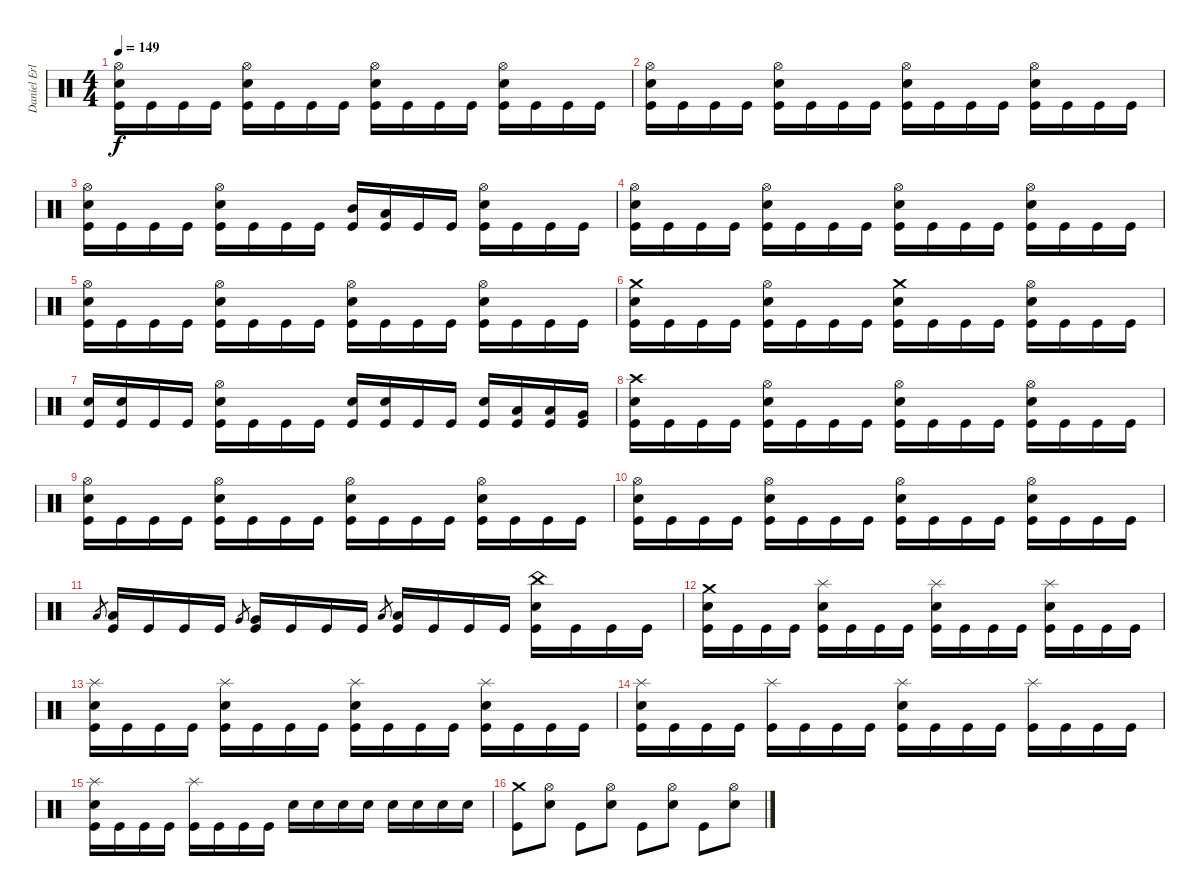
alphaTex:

\track ("Daniel Erlandsson" "Daniel Erl") {instrument percussion}
\staff {score}
\articulation defaults
\ts (4 4)
\tempo 149
\clef neutral
\ks c
("Kick (hit)" "Electric Snare (hit)" "Hi-Hat (open)").16{dy f} "Kick (hit)".16 "Kick (hit)".16 "Kick (hit)".16 ("Kick (hit)" "Electric Snare (hit)" "Hi-Hat (open)").16 "Kick (hit)".16 "Kick (hit)".16 "Kick (hit)".16 ("Kick (hit)" "Electric Snare (hit)" "Hi-Hat (open)").16 "Kick (hit)".16 "Kick (hit)".16 "Kick (hit)".16 ("Kick (hit)" "Electric Snare (hit)" "Hi-Hat (open)").16 "Kick (hit)".16 "Kick (hit)".16 "Kick (hit)".16 |
("Kick (hit)" "Electric Snare (hit)" "Hi-Hat (open)").16 "Kick (hit)".16 "Kick (hit)".16 "Kick (hit)".16 ("Kick (hit)" "Electric Snare (hit)" "Hi-Hat (open)").16 "Kick (hit)".16 "Kick (hit)".16 "Kick (hit)".16 ("Kick (hit)" "Electric Snare (hit)" "Hi-Hat (open)").16 "Kick (hit)".16 "Kick (hit)".16 "Kick (hit)".16 ("Kick (hit)" "Electric Snare (hit)" "Hi-Hat (open)").16 "Kick (hit)".16 "Kick (hit)".16 "Kick (hit)".16 |
("Kick (hit)" "Electric Snare (hit)" "Hi-Hat (open)").16 "Kick (hit)".16 "Kick (hit)".16 "Kick (hit)".16 ("Kick (hit)" "Electric Snare (hit)" "Hi-Hat (open)").16 "Kick (hit)".16 "Kick (hit)".16 "Kick (hit)".16 ("Kick (hit)" "Mid Tom (hit)").16 ("Kick (hit)" "Low Tom (hit)").16 "Kick (hit)".16 "Kick (hit)".16 ("Kick (hit)" "Electric Snare (hit)" "Hi-Hat (open)").16 "Kick (hit)".16 "Kick (hit)".16 "Kick (hit)".16 |
("Kick (hit)" "Electric Snare (hit)" "Hi-Hat (open)").16 "Kick (hit)".16 "Kick (hit)".16 "Kick (hit)".16 ("Kick (hit)" "Electric Snare (hit)" "Hi-Hat (open)").16 "Kick (hit)".16 "Kick (hit)".16 "Kick (hit)".16 ("Kick (hit)" "Electric Snare (hit)" "Hi-Hat (open)").16 "Kick (hit)".16 "Kick (hit)".16 "Kick (hit)".16 ("Kick (hit)" "Electric Snare (hit)" "Hi-Hat (open)").16 "Kick (hit)".16 "Kick (hit)".16 "Kick (hit)".16 |
("Kick (hit)" "Electric Snare (hit)" "Hi-Hat (open)").16 "Kick (hit)".16 "Kick (hit)".16 "Kick (hit)".16 ("Kick (hit)" "Electric Snare (hit)" "Hi-Hat (open)").16 "Kick (hit)".16 "Kick (hit)".16 "Kick (hit)".16 ("Kick (hit)" "Electric Snare (hit)" "Hi-Hat (open)").16 "Kick (hit)".16 "Kick (hit)".16 "Kick (hit)".16 ("Kick (hit)" "Electric Snare (hit)" "Hi-Hat (open)").16 "Kick (hit)".16 "Kick (hit)".16 "Kick (hit)".16 |
("Kick (hit)" "Electric Snare (hit)" "Crash medium (hit)").16 "Kick (hit)".16 "Kick (hit)".16 "Kick (hit)".16 ("Kick (hit)" "Electric Snare (hit)" "Hi-Hat (open)").16 "Kick (hit)".16 "Kick (hit)".16 "Kick (hit)".16 ("Kick (hit)" "Electric Snare (hit)" "Crash medium (hit)").16 "Kick (hit)".16 "Kick (hit)".16 "Kick (hit)".16 ("Kick (hit)" "Electric Snare (hit)" "Hi-Hat (open)").16 "Kick (hit)".16 "Kick (hit)".16 "Kick (hit)".16 |
("Kick (hit)" "Electric Snare (hit)").16 ("Kick (hit)" "Electric Snare (hit)").16 "Kick (hit)".16 "Kick (hit)".16 ("Kick (hit)" "Electric Snare (hit)" "Hi-Hat (open)").16 "Kick (hit)".16 "Kick (hit)".16 "Kick (hit)".16 ("Kick (hit)" "Electric Snare (hit)").16 ("Kick (hit)" "Electric Snare (hit)").16 "Kick (hit)".16 "Kick (hit)".16 ("Kick (hit)" "Electric Snare (hit)").16 ("Kick (hit)" "Low Tom (hit)").16 ("Kick (hit)" "Low Tom (hit)").16 ("Kick (hit)" "Very Low Tom (hit)").16 |
("Kick (hit)" "Electric Snare (hit)" "Crash high (hit)").16 "Kick (hit)".16 "Kick (hit)".16 "Kick (hit)".16 ("Kick (hit)" "Electric Snare (hit)" "Hi-Hat (open)").16 "Kick (hit)".16 "Kick (hit)".16 "Kick (hit)".16 ("Kick (hit)" "Electric Snare (hit)" "Hi-Hat (open)").16 "Kick (hit)".16 "Kick (hit)".16 "Kick (hit)".16 ("Kick (hit)" "Electric Snare (hit)" "Hi-Hat (open)").16 "Kick (hit)".16 "Kick (hit)".16 "Kick (hit)".16 |
("Kick (hit)" "Electric Snare (hit)" "Hi-Hat (open)").16 "Kick (hit)".16 "Kick (hit)".16 "Kick (hit)".16 ("Kick (hit)" "Electric Snare (hit)" "Hi-Hat (open)").16 "Kick (hit)".16 "Kick (hit)".16 "Kick (hit)".16 ("Kick (hit)" "Electric Snare (hit)" "Hi-Hat (open)").16 "Kick (hit)".16 "Kick (hit)".16 "Kick (hit)".16 ("Kick (hit)" "Electric Snare (hit)" "Hi-Hat (open)").16 "Kick (hit)".16 "Kick (hit)".16 "Kick (hit)".16 |
("Kick (hit)" "Electric Snare (hit)" "Hi-Hat (open)").16 "Kick (hit)".16 "Kick (hit)".16 "Kick (hit)".16 ("Kick (hit)" "Electric Snare (hit)" "Hi-Hat (open)").16 "Kick (hit)".16 "Kick (hit)".16 "Kick (hit)".16 ("Kick (hit)" "Electric Snare (hit)" "Hi-Hat (open)").16 "Kick (hit)".16 "Kick (hit)".16 "Kick (hit)".16 ("Kick (hit)" "Electric Snare (hit)" "Hi-Hat (open)").16 "Kick (hit)".16 "Kick (hit)".16 "Kick (hit)".16 |
"Low Tom (hit)".8{gr} ("Kick (hit)" "Low Tom (hit)").16 "Kick (hit)".16 "Kick (hit)".16 "Kick (hit)".16 "Very Low Tom (hit)".8{gr} ("Kick (hit)" "Very Low Tom (hit)").16 "Kick (hit)".16 "Kick (hit)".16 "Kick (hit)".16 "Low Floor Tom (hit)".8{gr} ("Kick (hit)" "Low Floor Tom (hit)").16 "Kick (hit)".16 "Kick (hit)".16 "Kick (hit)".16 ("Kick (hit)" "Electric Snare (hit)" "China (hit)").16 "Kick (hit)".16 "Kick (hit)".16 "Kick (hit)".16 |
("Kick (hit)" "Electric Snare (hit)" "Crash medium (hit)").16 "Kick (hit)".16 "Kick (hit)".16 "Kick (hit)".16 ("Kick (hit)" "Electric Snare (hit)" "Splash (hit)").16 "Kick (hit)".16 "Kick (hit)".16 "Kick (hit)".16 ("Kick (hit)" "Electric Snare (hit)" "Splash (hit)").16 "Kick (hit)".16 "Kick (hit)".16 "Kick (hit)".16 ("Kick (hit)" "Electric Snare (hit)" "Splash (hit)").16 "Kick (hit)".16 "Kick (hit)".16 "Kick (hit)".16 |
("Kick (hit)" "Electric Snare (hit)" "Splash (hit)").16 "Kick (hit)".16 "Kick (hit)".16 "Kick (hit)".16 ("Kick (hit)" "Electric Snare (hit)" "Splash (hit)").16 "Kick (hit)".16 "Kick (hit)".16 "Kick (hit)".16 ("Kick (hit)" "Electric Snare (hit)" "Splash (hit)").16 "Kick (hit)".16 "Kick (hit)".16 "Kick (hit)".16 ("Kick (hit)" "Electric Snare (hit)" "Splash (hit)").16 "Kick (hit)".16 "Kick (hit)".16 "Kick (hit)".16 |
("Kick (hit)" "Electric Snare (hit)" "Splash (hit)").16 "Kick (hit)".16 "Kick (hit)".16 "Kick (hit)".16 ("Kick (hit)" "Splash (hit)").16 "Kick (hit)".16 "Kick (hit)".16 "Kick (hit)".16 ("Kick (hit)" "Electric Snare (hit)" "Splash (hit)").16 "Kick (hit)".16 "Kick (hit)".16 "Kick (hit)".16 ("Kick (hit)" "Splash (hit)").16 "Kick (hit)".16 "Kick (hit)".16 "Kick (hit)".16 |
("Kick (hit)" "Electric Snare (hit)" "Splash (hit)").16 "Kick (hit)".16 "Kick (hit)".16 "Kick (hit)".16 ("Kick (hit)" "Splash (hit)").16 "Kick (hit)".16 "Kick (hit)".16 "Kick (hit)".16 "Electric Snare (hit)".16 "Electric Snare (hit)".16 "Electric Snare (hit)".16 "Electric Snare (hit)".16 "Electric Snare (hit)".16 "Electric Snare (hit)".16 "Electric Snare (hit)".16 "Electric Snare (hit)".16 |
("Kick (hit)" "Crash medium (hit)").8 ("Electric Snare (hit)" "Hi-Hat (open)").8 "Kick (hit)".8 ("Electric Snare (hit)" "Hi-Hat (open)").8 "Kick (hit)".8 ("Electric Snare (hit)" "Hi-Hat (open)").8 "Kick (hit)".8 ("Electric Snare (hit)" "Hi-Hat (open)").8
